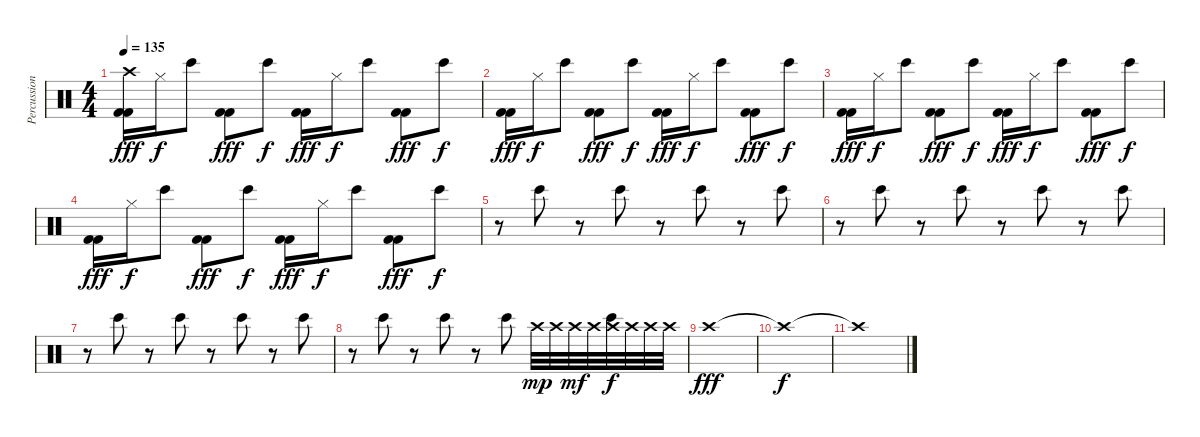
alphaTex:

\track ("Percussion" "Percussion") {instrument percussion}
\staff {score}
\articulation defaults
\ts (4 4)
\tempo 135
\clef neutral
\ks c
("Crash high (hit)" "Kick (hit) 2" "Kick (hit) 2").16{dy fff} "Hi-Hat (closed)".16{dy f} "Bongo High (hit)".8 ("Kick (hit) 2" "Kick (hit) 2").8{dy fff} "Bongo High (hit)".8{dy f} ("Kick (hit) 2" "Kick (hit) 2").16{dy fff} "Hi-Hat (closed)".16{dy f} "Bongo High (hit)".8 ("Kick (hit) 2" "Kick (hit) 2").8{dy fff} "Bongo High (hit)".8{dy f} |
("Kick (hit) 2" "Kick (hit) 2").16{dy fff} "Hi-Hat (closed)".16{dy f} "Bongo High (hit)".8 ("Kick (hit) 2" "Kick (hit) 2").8{dy fff} "Bongo High (hit)".8{dy f} ("Kick (hit) 2" "Kick (hit) 2").16{dy fff} "Hi-Hat (closed)".16{dy f} "Bongo High (hit)".8 ("Kick (hit) 2" "Kick (hit) 2").8{dy fff} "Bongo High (hit)".8{dy f} |
("Kick (hit) 2" "Kick (hit) 2").16{dy fff} "Hi-Hat (closed)".16{dy f} "Bongo High (hit)".8 ("Kick (hit) 2" "Kick (hit) 2").8{dy fff} "Bongo High (hit)".8{dy f} ("Kick (hit) 2" "Kick (hit) 2").16{dy fff} "Hi-Hat (closed)".16{dy f} "Bongo High (hit)".8 ("Kick (hit) 2" "Kick (hit) 2").8{dy fff} "Bongo High (hit)".8{dy f} |
("Kick (hit) 2" "Kick (hit) 2").16{dy fff} "Hi-Hat (closed)".16{dy f} "Bongo High (hit)".8 ("Kick (hit) 2" "Kick (hit) 2").8{dy fff} "Bongo High (hit)".8{dy f} ("Kick (hit) 2" "Kick (hit) 2").16{dy fff} "Hi-Hat (closed)".16{dy f} "Bongo High (hit)".8 ("Kick (hit) 2" "Kick (hit) 2").8{dy fff} "Bongo High (hit)".8{dy f} |
r.8 "Bongo High (hit)".8 r.8 "Bongo High (hit)".8 r.8 "Bongo High (hit)".8 r.8 "Bongo High (hit)".8 |
r.8 "Bongo High (hit)".8 r.8 "Bongo High (hit)".8 r.8 "Bongo High (hit)".8 r.8 "Bongo High (hit)".8 |
r.8 "Bongo High (hit)".8 r.8 "Bongo High (hit)".8 r.8 "Bongo High (hit)".8 r.8 "Bongo High (hit)".8 |
r.8 "Bongo High (hit)".8 r.8 "Bongo High (hit)".8 r.8 "Bongo High (hit)".8 "Crash high (hit)".32{dy mp} "Crash high (hit)".32 "Crash high (hit)".32{dy mf} "Crash high (hit)".32 ("Crash high (hit)" "Bongo High (hit)").32{dy f} "Crash high (hit)".32 "Crash high (hit)".32 "Crash high (hit)".32 |
"Crash high (hit)".1{dy fff} |
"Crash high (hit)"{t}.1{dy f} |
"Crash high (hit)"{t}.1
